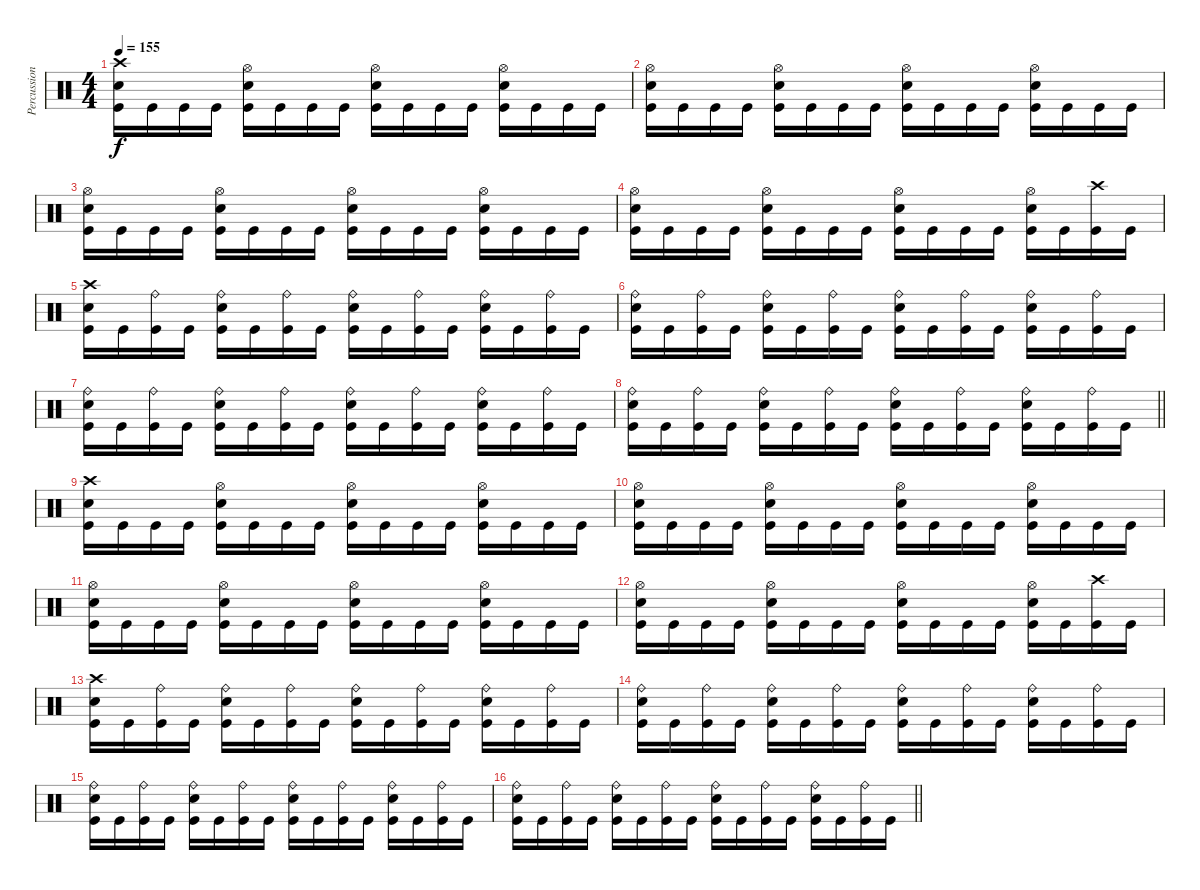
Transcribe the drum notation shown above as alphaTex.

\track ("Percussions" "Percussion") {instrument percussion}
\staff {score}
\articulation defaults
\ts (4 4)
\tempo 155
\clef neutral
\ks c
("Crash high (hit)" "Electric Snare (hit)" "Kick (hit)").16{dy f} "Kick (hit)".16 "Kick (hit)".16 "Kick (hit)".16 ("Hi-Hat (open)" "Electric Snare (hit)" "Kick (hit)").16 "Kick (hit)".16 "Kick (hit)".16 "Kick (hit)".16 ("Hi-Hat (open)" "Electric Snare (hit)" "Kick (hit)").16 "Kick (hit)".16 "Kick (hit)".16 "Kick (hit)".16 ("Hi-Hat (open)" "Electric Snare (hit)" "Kick (hit)").16 "Kick (hit)".16 "Kick (hit)".16 "Kick (hit)".16 |
("Hi-Hat (open)" "Electric Snare (hit)" "Kick (hit)").16 "Kick (hit)".16 "Kick (hit)".16 "Kick (hit)".16 ("Hi-Hat (open)" "Electric Snare (hit)" "Kick (hit)").16 "Kick (hit)".16 "Kick (hit)".16 "Kick (hit)".16 ("Hi-Hat (open)" "Electric Snare (hit)" "Kick (hit)").16 "Kick (hit)".16 "Kick (hit)".16 "Kick (hit)".16 ("Hi-Hat (open)" "Electric Snare (hit)" "Kick (hit)").16 "Kick (hit)".16 "Kick (hit)".16 "Kick (hit)".16 |
("Hi-Hat (open)" "Electric Snare (hit)" "Kick (hit)").16 "Kick (hit)".16 "Kick (hit)".16 "Kick (hit)".16 ("Hi-Hat (open)" "Electric Snare (hit)" "Kick (hit)").16 "Kick (hit)".16 "Kick (hit)".16 "Kick (hit)".16 ("Hi-Hat (open)" "Electric Snare (hit)" "Kick (hit)").16 "Kick (hit)".16 "Kick (hit)".16 "Kick (hit)".16 ("Hi-Hat (open)" "Electric Snare (hit)" "Kick (hit)").16 "Kick (hit)".16 "Kick (hit)".16 "Kick (hit)".16 |
("Hi-Hat (open)" "Electric Snare (hit)" "Kick (hit)").16 "Kick (hit)".16 "Kick (hit)".16 "Kick (hit)".16 ("Hi-Hat (open)" "Electric Snare (hit)" "Kick (hit)").16 "Kick (hit)".16 "Kick (hit)".16 "Kick (hit)".16 ("Hi-Hat (open)" "Electric Snare (hit)" "Kick (hit)").16 "Kick (hit)".16 "Kick (hit)".16 "Kick (hit)".16 ("Hi-Hat (open)" "Electric Snare (hit)" "Kick (hit)").16 "Kick (hit)".16 ("Crash high (hit)" "Kick (hit)").16 "Kick (hit)".16 |
("Crash high (hit)" "Electric Snare (hit)" "Kick (hit)").16 "Kick (hit)".16 ("Ride (bell)" "Kick (hit)").16 "Kick (hit)".16 ("Ride (bell)" "Electric Snare (hit)" "Kick (hit)").16 "Kick (hit)".16 ("Ride (bell)" "Kick (hit)").16 "Kick (hit)".16 ("Ride (bell)" "Electric Snare (hit)" "Kick (hit)").16 "Kick (hit)".16 ("Ride (bell)" "Kick (hit)").16 "Kick (hit)".16 ("Ride (bell)" "Electric Snare (hit)" "Kick (hit)").16 "Kick (hit)".16 ("Ride (bell)" "Kick (hit)").16 "Kick (hit)".16 |
("Ride (bell)" "Electric Snare (hit)" "Kick (hit)").16 "Kick (hit)".16 ("Ride (bell)" "Kick (hit)").16 "Kick (hit)".16 ("Ride (bell)" "Electric Snare (hit)" "Kick (hit)").16 "Kick (hit)".16 ("Ride (bell)" "Kick (hit)").16 "Kick (hit)".16 ("Ride (bell)" "Electric Snare (hit)" "Kick (hit)").16 "Kick (hit)".16 ("Ride (bell)" "Kick (hit)").16 "Kick (hit)".16 ("Ride (bell)" "Electric Snare (hit)" "Kick (hit)").16 "Kick (hit)".16 ("Ride (bell)" "Kick (hit)").16 "Kick (hit)".16 |
("Ride (bell)" "Electric Snare (hit)" "Kick (hit)").16 "Kick (hit)".16 ("Ride (bell)" "Kick (hit)").16 "Kick (hit)".16 ("Ride (bell)" "Electric Snare (hit)" "Kick (hit)").16 "Kick (hit)".16 ("Ride (bell)" "Kick (hit)").16 "Kick (hit)".16 ("Ride (bell)" "Electric Snare (hit)" "Kick (hit)").16 "Kick (hit)".16 ("Ride (bell)" "Kick (hit)").16 "Kick (hit)".16 ("Ride (bell)" "Electric Snare (hit)" "Kick (hit)").16 "Kick (hit)".16 ("Ride (bell)" "Kick (hit)").16 "Kick (hit)".16 |
\barLineRight lightlight
("Ride (bell)" "Electric Snare (hit)" "Kick (hit)").16 "Kick (hit)".16 ("Ride (bell)" "Kick (hit)").16 "Kick (hit)".16 ("Ride (bell)" "Electric Snare (hit)" "Kick (hit)").16 "Kick (hit)".16 ("Ride (bell)" "Kick (hit)").16 "Kick (hit)".16 ("Ride (bell)" "Electric Snare (hit)" "Kick (hit)").16 "Kick (hit)".16 ("Ride (bell)" "Kick (hit)").16 "Kick (hit)".16 ("Ride (bell)" "Electric Snare (hit)" "Kick (hit)").16 "Kick (hit)".16 ("Ride (bell)" "Kick (hit)").16 "Kick (hit)".16 |
("Crash high (hit)" "Electric Snare (hit)" "Kick (hit)").16 "Kick (hit)".16 "Kick (hit)".16 "Kick (hit)".16 ("Hi-Hat (open)" "Electric Snare (hit)" "Kick (hit)").16 "Kick (hit)".16 "Kick (hit)".16 "Kick (hit)".16 ("Hi-Hat (open)" "Electric Snare (hit)" "Kick (hit)").16 "Kick (hit)".16 "Kick (hit)".16 "Kick (hit)".16 ("Hi-Hat (open)" "Electric Snare (hit)" "Kick (hit)").16 "Kick (hit)".16 "Kick (hit)".16 "Kick (hit)".16 |
("Hi-Hat (open)" "Electric Snare (hit)" "Kick (hit)").16 "Kick (hit)".16 "Kick (hit)".16 "Kick (hit)".16 ("Hi-Hat (open)" "Electric Snare (hit)" "Kick (hit)").16 "Kick (hit)".16 "Kick (hit)".16 "Kick (hit)".16 ("Hi-Hat (open)" "Electric Snare (hit)" "Kick (hit)").16 "Kick (hit)".16 "Kick (hit)".16 "Kick (hit)".16 ("Hi-Hat (open)" "Electric Snare (hit)" "Kick (hit)").16 "Kick (hit)".16 "Kick (hit)".16 "Kick (hit)".16 |
("Hi-Hat (open)" "Electric Snare (hit)" "Kick (hit)").16 "Kick (hit)".16 "Kick (hit)".16 "Kick (hit)".16 ("Hi-Hat (open)" "Electric Snare (hit)" "Kick (hit)").16 "Kick (hit)".16 "Kick (hit)".16 "Kick (hit)".16 ("Hi-Hat (open)" "Electric Snare (hit)" "Kick (hit)").16 "Kick (hit)".16 "Kick (hit)".16 "Kick (hit)".16 ("Hi-Hat (open)" "Electric Snare (hit)" "Kick (hit)").16 "Kick (hit)".16 "Kick (hit)".16 "Kick (hit)".16 |
("Hi-Hat (open)" "Electric Snare (hit)" "Kick (hit)").16 "Kick (hit)".16 "Kick (hit)".16 "Kick (hit)".16 ("Hi-Hat (open)" "Electric Snare (hit)" "Kick (hit)").16 "Kick (hit)".16 "Kick (hit)".16 "Kick (hit)".16 ("Hi-Hat (open)" "Electric Snare (hit)" "Kick (hit)").16 "Kick (hit)".16 "Kick (hit)".16 "Kick (hit)".16 ("Hi-Hat (open)" "Electric Snare (hit)" "Kick (hit)").16 "Kick (hit)".16 ("Crash high (hit)" "Kick (hit)").16 "Kick (hit)".16 |
("Crash high (hit)" "Electric Snare (hit)" "Kick (hit)").16 "Kick (hit)".16 ("Ride (bell)" "Kick (hit)").16 "Kick (hit)".16 ("Ride (bell)" "Electric Snare (hit)" "Kick (hit)").16 "Kick (hit)".16 ("Ride (bell)" "Kick (hit)").16 "Kick (hit)".16 ("Ride (bell)" "Electric Snare (hit)" "Kick (hit)").16 "Kick (hit)".16 ("Ride (bell)" "Kick (hit)").16 "Kick (hit)".16 ("Ride (bell)" "Electric Snare (hit)" "Kick (hit)").16 "Kick (hit)".16 ("Ride (bell)" "Kick (hit)").16 "Kick (hit)".16 |
("Ride (bell)" "Electric Snare (hit)" "Kick (hit)").16 "Kick (hit)".16 ("Ride (bell)" "Kick (hit)").16 "Kick (hit)".16 ("Ride (bell)" "Electric Snare (hit)" "Kick (hit)").16 "Kick (hit)".16 ("Ride (bell)" "Kick (hit)").16 "Kick (hit)".16 ("Ride (bell)" "Electric Snare (hit)" "Kick (hit)").16 "Kick (hit)".16 ("Ride (bell)" "Kick (hit)").16 "Kick (hit)".16 ("Ride (bell)" "Electric Snare (hit)" "Kick (hit)").16 "Kick (hit)".16 ("Ride (bell)" "Kick (hit)").16 "Kick (hit)".16 |
("Ride (bell)" "Electric Snare (hit)" "Kick (hit)").16 "Kick (hit)".16 ("Ride (bell)" "Kick (hit)").16 "Kick (hit)".16 ("Ride (bell)" "Electric Snare (hit)" "Kick (hit)").16 "Kick (hit)".16 ("Ride (bell)" "Kick (hit)").16 "Kick (hit)".16 ("Ride (bell)" "Electric Snare (hit)" "Kick (hit)").16 "Kick (hit)".16 ("Ride (bell)" "Kick (hit)").16 "Kick (hit)".16 ("Ride (bell)" "Electric Snare (hit)" "Kick (hit)").16 "Kick (hit)".16 ("Ride (bell)" "Kick (hit)").16 "Kick (hit)".16 |
\barLineRight lightlight
("Ride (bell)" "Electric Snare (hit)" "Kick (hit)").16 "Kick (hit)".16 ("Ride (bell)" "Kick (hit)").16 "Kick (hit)".16 ("Ride (bell)" "Electric Snare (hit)" "Kick (hit)").16 "Kick (hit)".16 ("Ride (bell)" "Kick (hit)").16 "Kick (hit)".16 ("Ride (bell)" "Electric Snare (hit)" "Kick (hit)").16 "Kick (hit)".16 ("Ride (bell)" "Kick (hit)").16 "Kick (hit)".16 ("Ride (bell)" "Electric Snare (hit)" "Kick (hit)").16 "Kick (hit)".16 ("Ride (bell)" "Kick (hit)").16 "Kick (hit)".16
